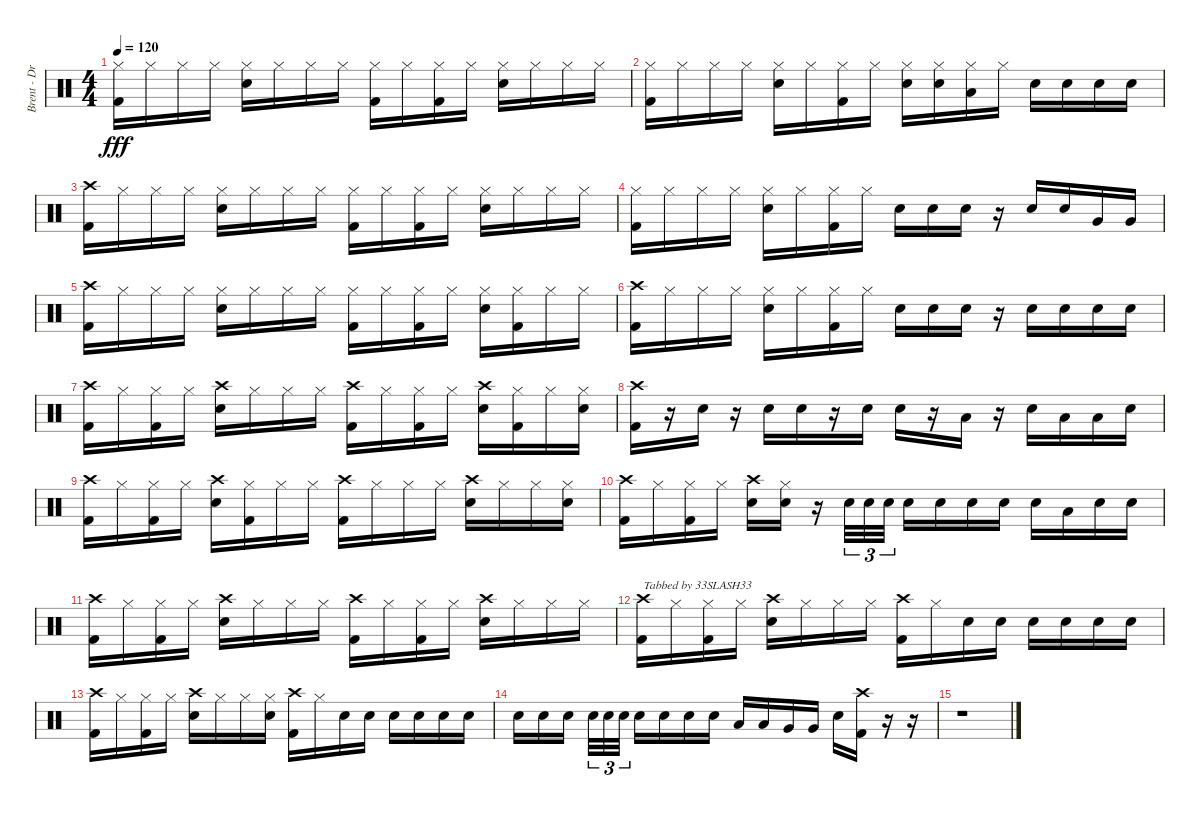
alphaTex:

\track ("Brent - Drums" "Brent - Dr") {instrument percussion}
\staff {score}
\articulation defaults
\ts (4 4)
\tempo 120
\clef neutral
\ks c
("Hi-Hat (closed)" "Kick (hit) 2").16{dy fff} "Hi-Hat (closed)".16 "Hi-Hat (closed)".16 "Hi-Hat (closed)".16 ("Hi-Hat (closed)" "Snare (hit) 2").16 "Hi-Hat (closed)".16 "Hi-Hat (closed)".16 "Hi-Hat (closed)".16 ("Hi-Hat (closed)" "Kick (hit) 2").16 "Hi-Hat (closed)".16 ("Hi-Hat (closed)" "Kick (hit) 2").16 "Hi-Hat (closed)".16 ("Hi-Hat (closed)" "Snare (hit) 2").16 "Hi-Hat (closed)".16 "Hi-Hat (closed)".16 "Hi-Hat (closed)".16 |
("Hi-Hat (closed)" "Kick (hit) 2").16 "Hi-Hat (closed)".16 "Hi-Hat (closed)".16 "Hi-Hat (closed)".16 ("Hi-Hat (closed)" "Snare (hit) 2").16 "Hi-Hat (closed)".16 ("Hi-Hat (closed)" "Kick (hit) 2").16 "Hi-Hat (closed)".16 ("Hi-Hat (closed)" "Snare (hit) 2").16 ("Hi-Hat (closed)" "Snare (hit) 2").16 ("Hi-Hat (closed)" "Low Tom (hit)").16 "Hi-Hat (closed)".16 "Snare (hit) 2".16 "Snare (hit) 2".16 "Snare (hit) 2".16 "Snare (hit) 2".16 |
("Crash high (hit)" "Kick (hit) 2").16 "Hi-Hat (closed)".16 "Hi-Hat (closed)".16 "Hi-Hat (closed)".16 ("Hi-Hat (closed)" "Snare (hit) 2").16 "Hi-Hat (closed)".16 "Hi-Hat (closed)".16 "Hi-Hat (closed)".16 ("Hi-Hat (closed)" "Kick (hit) 2").16 "Hi-Hat (closed)".16 ("Hi-Hat (closed)" "Kick (hit) 2").16 "Hi-Hat (closed)".16 ("Hi-Hat (closed)" "Snare (hit) 2").16 "Hi-Hat (closed)".16 "Hi-Hat (closed)".16 "Hi-Hat (closed)".16 |
("Hi-Hat (closed)" "Kick (hit) 2").16 "Hi-Hat (closed)".16 "Hi-Hat (closed)".16 "Hi-Hat (closed)".16 ("Hi-Hat (closed)" "Snare (hit) 2").16 "Hi-Hat (closed)".16 ("Hi-Hat (closed)" "Kick (hit) 2").16 "Hi-Hat (closed)".16 "Snare (hit) 2".16 "Snare (hit) 2".16 "Snare (hit) 2".16 r.16 "Snare (hit) 2".16 "Snare (hit) 2".16 "Very Low Tom (hit)".16 "Very Low Tom (hit)".16 |
("Crash high (hit)" "Kick (hit) 2").16 "Hi-Hat (closed)".16 "Hi-Hat (closed)".16 "Hi-Hat (closed)".16 ("Hi-Hat (closed)" "Snare (hit) 2").16 "Hi-Hat (closed)".16 "Hi-Hat (closed)".16 "Hi-Hat (closed)".16 ("Hi-Hat (closed)" "Kick (hit) 2").16 "Hi-Hat (closed)".16 ("Hi-Hat (closed)" "Kick (hit) 2").16 "Hi-Hat (closed)".16 ("Hi-Hat (closed)" "Snare (hit) 2").16 ("Hi-Hat (closed)" "Kick (hit) 2").16 "Hi-Hat (closed)".16 "Hi-Hat (closed)".16 |
("Crash high (hit)" "Kick (hit) 2").16 "Hi-Hat (closed)".16 "Hi-Hat (closed)".16 "Hi-Hat (closed)".16 ("Hi-Hat (closed)" "Snare (hit) 2").16 "Hi-Hat (closed)".16 ("Hi-Hat (closed)" "Kick (hit) 2").16 "Hi-Hat (closed)".16 "Snare (hit) 2".16 "Snare (hit) 2".16 "Snare (hit) 2".16 r.16 "Snare (hit) 2".16 "Snare (hit) 2".16 "Snare (hit) 2".16 "Snare (hit) 2".16 |
("Crash high (hit)" "Kick (hit) 2").16 "Hi-Hat (closed)".16 ("Hi-Hat (closed)" "Kick (hit) 2").16 "Hi-Hat (closed)".16 ("Crash high (hit)" "Snare (hit) 2").16 "Hi-Hat (closed)".16 "Hi-Hat (closed)".16 "Hi-Hat (closed)".16 ("Crash high (hit)" "Kick (hit) 2").16 "Hi-Hat (closed)".16 ("Hi-Hat (closed)" "Kick (hit) 2").16 "Hi-Hat (closed)".16 ("Crash high (hit)" "Snare (hit) 2").16 ("Hi-Hat (closed)" "Kick (hit) 2").16 "Hi-Hat (closed)".16 ("Hi-Hat (closed)" "Snare (hit) 2").16 |
("Crash high (hit)" "Kick (hit) 2").16 r.16 "Snare (hit) 2".16 r.16 "Snare (hit) 2".16 "Snare (hit) 2".16 r.16 "Snare (hit) 2".16 "Snare (hit) 2".16 r.16 "Low Tom (hit)".16 r.16 "Snare (hit) 2".16 "Low Tom (hit)".16 "Low Tom (hit)".16 "Snare (hit) 2".16 |
("Crash high (hit)" "Kick (hit) 2").16 "Hi-Hat (closed)".16 ("Hi-Hat (closed)" "Kick (hit) 2").16 "Hi-Hat (closed)".16 ("Crash high (hit)" "Snare (hit) 2").16 ("Hi-Hat (closed)" "Kick (hit) 2").16 "Hi-Hat (closed)".16 "Hi-Hat (closed)".16 ("Crash high (hit)" "Kick (hit) 2").16 "Hi-Hat (closed)".16 "Hi-Hat (closed)".16 "Hi-Hat (closed)".16 ("Crash high (hit)" "Snare (hit) 2").16 "Hi-Hat (closed)".16 "Hi-Hat (closed)".16 ("Hi-Hat (closed)" "Snare (hit) 2").16 |
("Crash high (hit)" "Kick (hit) 2").16 "Hi-Hat (closed)".16 ("Hi-Hat (closed)" "Kick (hit) 2").16 "Hi-Hat (closed)".16 ("Crash high (hit)" "Snare (hit) 2").16 ("Hi-Hat (closed)" "Snare (hit) 2").16 r.16 "Snare (hit) 2".32{tu (3 2)} "Snare (hit) 2".32{tu (3 2)} "Snare (hit) 2".32{tu (3 2)} "Snare (hit) 2".16 "Snare (hit) 2".16 "Snare (hit) 2".16 "Snare (hit) 2".16 "Snare (hit) 2".16 "Low Tom (hit)".16 "Snare (hit) 2".16 "Snare (hit) 2".16 |
("Crash high (hit)" "Kick (hit) 2").16 "Hi-Hat (closed)".16 ("Hi-Hat (closed)" "Kick (hit) 2").16 "Hi-Hat (closed)".16 ("Crash high (hit)" "Snare (hit) 2").16 "Hi-Hat (closed)".16 "Hi-Hat (closed)".16 "Hi-Hat (closed)".16 ("Crash high (hit)" "Kick (hit) 2").16 "Hi-Hat (closed)".16 ("Hi-Hat (closed)" "Kick (hit) 2").16 "Hi-Hat (closed)".16 ("Crash high (hit)" "Snare (hit) 2").16 "Hi-Hat (closed)".16 "Hi-Hat (closed)".16 "Hi-Hat (closed)".16 |
("Crash high (hit)" "Kick (hit) 2").16{txt "Tabbed by 33SLASH33"} "Hi-Hat (closed)".16 ("Hi-Hat (closed)" "Kick (hit) 2").16 "Hi-Hat (closed)".16 ("Crash high (hit)" "Snare (hit) 2").16 "Hi-Hat (closed)".16 "Hi-Hat (closed)".16 "Hi-Hat (closed)".16 ("Crash high (hit)" "Kick (hit) 2").16 "Hi-Hat (closed)".16 "Snare (hit) 2".16 "Snare (hit) 2".16 "Snare (hit) 2".16 "Snare (hit) 2".16 "Snare (hit) 2".16 "Snare (hit) 2".16 |
("Crash high (hit)" "Kick (hit) 2").16 "Hi-Hat (closed)".16 ("Hi-Hat (closed)" "Kick (hit) 2").16 "Hi-Hat (closed)".16 ("Crash high (hit)" "Snare (hit) 2").16 "Hi-Hat (closed)".16 "Hi-Hat (closed)".16 ("Hi-Hat (closed)" "Snare (hit) 2").16 ("Crash high (hit)" "Kick (hit) 2").16 "Hi-Hat (closed)".16 "Snare (hit) 2".16 "Snare (hit) 2".16 "Snare (hit) 2".16 "Snare (hit) 2".16 "Snare (hit) 2".16 "Snare (hit) 2".16 |
"Snare (hit) 2".16 "Snare (hit) 2".16 "Snare (hit) 2".16{beam splitsecondary} "Snare (hit) 2".32{tu (3 2)} "Snare (hit) 2".32{tu (3 2)} "Snare (hit) 2".32{tu (3 2)} "Snare (hit) 2".16 "Snare (hit) 2".16 "Snare (hit) 2".16 "Snare (hit) 2".16 "Low Tom (hit)".16 "Low Tom (hit)".16 "Very Low Tom (hit)".16 "Very Low Tom (hit)".16 "Snare (hit) 2".16 ("Crash high (hit)" "Kick (hit) 2").16 r.16 r.16 |
r.1
